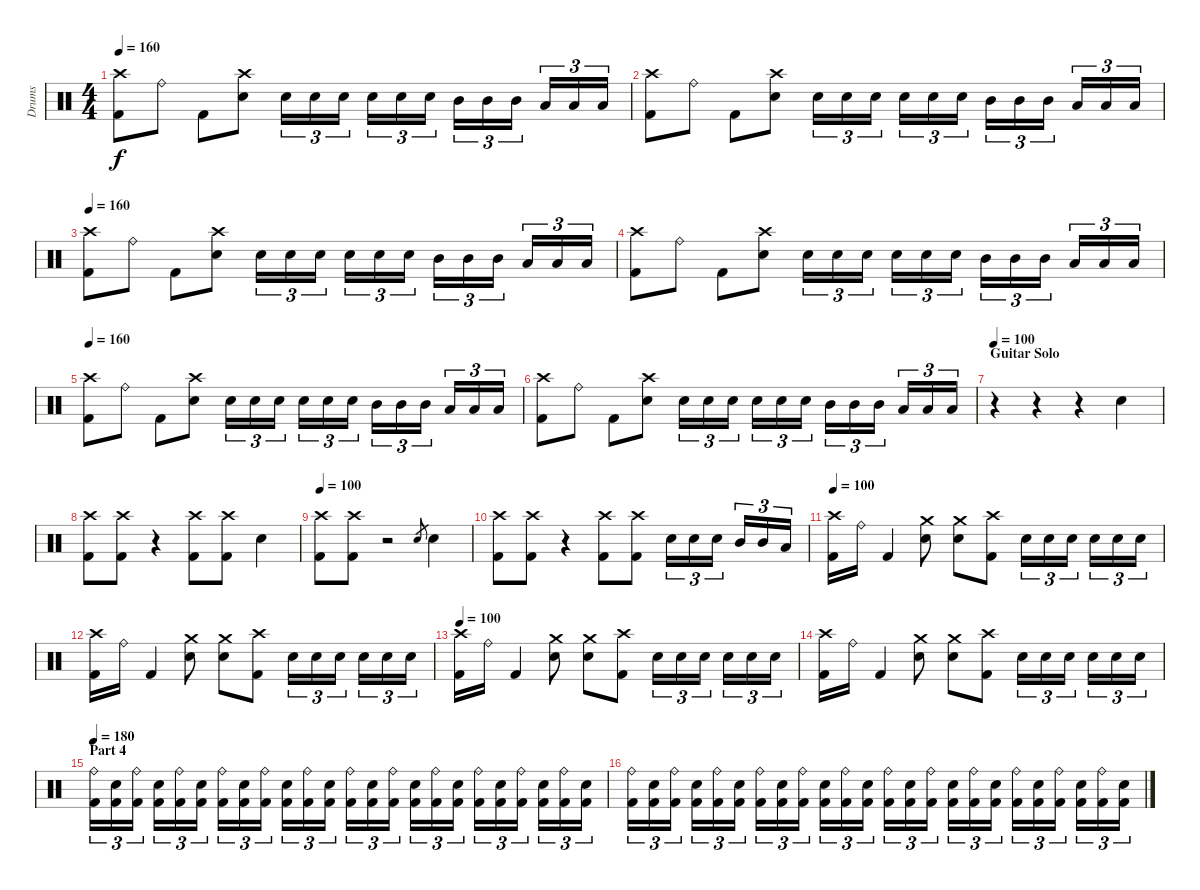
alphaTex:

\track ("Drums" "Drums") {instrument percussion}
\staff {score}
\articulation defaults
\ts (4 4)
\tempo 160
\clef neutral
\ks c
("Crash high (hit)" "Kick (hit) 2").8{dy f} "Ride (bell)".8 "Kick (hit) 2".8 ("Crash high (hit)" "Electric Snare (hit)").8 "Electric Snare (hit)".16{tu (3 2)} "Electric Snare (hit)".16{tu (3 2)} "Electric Snare (hit)".16{tu (3 2)} "Electric Snare (hit)".16{tu (3 2)} "Electric Snare (hit)".16{tu (3 2)} "Electric Snare (hit)".16{tu (3 2)} "Mid Tom (hit)".16{tu (3 2)} "Mid Tom (hit)".16{tu (3 2)} "Mid Tom (hit)".16{tu (3 2)} "Low Tom (hit)".16{tu (3 2)} "Low Tom (hit)".16{tu (3 2)} "Low Tom (hit)".16{tu (3 2)} |
("Crash high (hit)" "Kick (hit) 2").8 "Ride (bell)".8 "Kick (hit) 2".8 ("Crash high (hit)" "Electric Snare (hit)").8 "Electric Snare (hit)".16{tu (3 2)} "Electric Snare (hit)".16{tu (3 2)} "Electric Snare (hit)".16{tu (3 2)} "Electric Snare (hit)".16{tu (3 2)} "Electric Snare (hit)".16{tu (3 2)} "Electric Snare (hit)".16{tu (3 2)} "Mid Tom (hit)".16{tu (3 2)} "Mid Tom (hit)".16{tu (3 2)} "Mid Tom (hit)".16{tu (3 2)} "Low Tom (hit)".16{tu (3 2)} "Low Tom (hit)".16{tu (3 2)} "Low Tom (hit)".16{tu (3 2)} |
\tempo 160
("Crash high (hit)" "Kick (hit) 2").8 "Ride (bell)".8 "Kick (hit) 2".8 ("Crash high (hit)" "Electric Snare (hit)").8 "Electric Snare (hit)".16{tu (3 2)} "Electric Snare (hit)".16{tu (3 2)} "Electric Snare (hit)".16{tu (3 2)} "Electric Snare (hit)".16{tu (3 2)} "Electric Snare (hit)".16{tu (3 2)} "Electric Snare (hit)".16{tu (3 2)} "Mid Tom (hit)".16{tu (3 2)} "Mid Tom (hit)".16{tu (3 2)} "Mid Tom (hit)".16{tu (3 2)} "Low Tom (hit)".16{tu (3 2)} "Low Tom (hit)".16{tu (3 2)} "Low Tom (hit)".16{tu (3 2)} |
("Crash high (hit)" "Kick (hit) 2").8 "Ride (bell)".8 "Kick (hit) 2".8 ("Crash high (hit)" "Electric Snare (hit)").8 "Electric Snare (hit)".16{tu (3 2)} "Electric Snare (hit)".16{tu (3 2)} "Electric Snare (hit)".16{tu (3 2)} "Electric Snare (hit)".16{tu (3 2)} "Electric Snare (hit)".16{tu (3 2)} "Electric Snare (hit)".16{tu (3 2)} "Mid Tom (hit)".16{tu (3 2)} "Mid Tom (hit)".16{tu (3 2)} "Mid Tom (hit)".16{tu (3 2)} "Low Tom (hit)".16{tu (3 2)} "Low Tom (hit)".16{tu (3 2)} "Low Tom (hit)".16{tu (3 2)} |
\tempo 160
("Crash high (hit)" "Kick (hit) 2").8 "Ride (bell)".8 "Kick (hit) 2".8 ("Crash high (hit)" "Electric Snare (hit)").8 "Electric Snare (hit)".16{tu (3 2)} "Electric Snare (hit)".16{tu (3 2)} "Electric Snare (hit)".16{tu (3 2)} "Electric Snare (hit)".16{tu (3 2)} "Electric Snare (hit)".16{tu (3 2)} "Electric Snare (hit)".16{tu (3 2)} "Mid Tom (hit)".16{tu (3 2)} "Mid Tom (hit)".16{tu (3 2)} "Mid Tom (hit)".16{tu (3 2)} "Low Tom (hit)".16{tu (3 2)} "Low Tom (hit)".16{tu (3 2)} "Low Tom (hit)".16{tu (3 2)} |
("Crash high (hit)" "Kick (hit) 2").8 "Ride (bell)".8 "Kick (hit) 2".8 ("Crash high (hit)" "Electric Snare (hit)").8 "Electric Snare (hit)".16{tu (3 2)} "Electric Snare (hit)".16{tu (3 2)} "Electric Snare (hit)".16{tu (3 2)} "Electric Snare (hit)".16{tu (3 2)} "Electric Snare (hit)".16{tu (3 2)} "Electric Snare (hit)".16{tu (3 2)} "Mid Tom (hit)".16{tu (3 2)} "Mid Tom (hit)".16{tu (3 2)} "Mid Tom (hit)".16{tu (3 2)} "Low Tom (hit)".16{tu (3 2)} "Low Tom (hit)".16{tu (3 2)} "Low Tom (hit)".16{tu (3 2)} |
\section ("" "Guitar Solo")
\tempo 100
r.4 r.4 r.4 "Electric Snare (hit)".4 |
("Crash high (hit)" "Kick (hit) 2").8 ("Crash high (hit)" "Kick (hit) 2").8 r.4 ("Crash high (hit)" "Kick (hit) 2").8 ("Crash high (hit)" "Kick (hit) 2").8 "Electric Snare (hit)".4 |
\tempo 100
("Crash high (hit)" "Kick (hit) 2").8 ("Crash high (hit)" "Kick (hit) 2").8 r.2 "Electric Snare (hit)".8{gr} "Electric Snare (hit)".4 |
("Crash high (hit)" "Kick (hit) 2").8 ("Crash high (hit)" "Kick (hit) 2").8 r.4 ("Crash high (hit)" "Kick (hit) 2").8 ("Crash high (hit)" "Kick (hit) 2").8 "Electric Snare (hit)".16{tu (3 2)} "Electric Snare (hit)".16{tu (3 2)} "Electric Snare (hit)".16{tu (3 2)} "Mid Tom (hit)".16{tu (3 2)} "Mid Tom (hit)".16{tu (3 2)} "Low Tom (hit)".16{tu (3 2)} |
\tempo 100
("Crash high (hit)" "Kick (hit) 2").16 "Ride (bell)".16 "Kick (hit) 2".4 ("Crash medium (hit)" "Electric Snare (hit)").8 ("Crash medium (hit)" "Electric Snare (hit)").8 ("Crash high (hit)" "Kick (hit) 2").8 "Electric Snare (hit)".16{tu (3 2)} "Electric Snare (hit)".16{tu (3 2)} "Electric Snare (hit)".16{tu (3 2)} "Electric Snare (hit)".16{tu (3 2)} "Electric Snare (hit)".16{tu (3 2)} "Electric Snare (hit)".16{tu (3 2)} |
("Crash high (hit)" "Kick (hit) 2").16 "Ride (bell)".16 "Kick (hit) 2".4 ("Crash medium (hit)" "Electric Snare (hit)").8 ("Crash medium (hit)" "Electric Snare (hit)").8 ("Crash high (hit)" "Kick (hit) 2").8 "Electric Snare (hit)".16{tu (3 2)} "Electric Snare (hit)".16{tu (3 2)} "Electric Snare (hit)".16{tu (3 2)} "Electric Snare (hit)".16{tu (3 2)} "Electric Snare (hit)".16{tu (3 2)} "Electric Snare (hit)".16{tu (3 2)} |
\tempo 100
("Crash high (hit)" "Kick (hit) 2").16 "Ride (bell)".16 "Kick (hit) 2".4 ("Crash medium (hit)" "Electric Snare (hit)").8 ("Crash medium (hit)" "Electric Snare (hit)").8 ("Crash high (hit)" "Kick (hit) 2").8 "Electric Snare (hit)".16{tu (3 2)} "Electric Snare (hit)".16{tu (3 2)} "Electric Snare (hit)".16{tu (3 2)} "Electric Snare (hit)".16{tu (3 2)} "Electric Snare (hit)".16{tu (3 2)} "Electric Snare (hit)".16{tu (3 2)} |
("Crash high (hit)" "Kick (hit) 2").16 "Ride (bell)".16 "Kick (hit) 2".4 ("Crash medium (hit)" "Electric Snare (hit)").8 ("Crash medium (hit)" "Electric Snare (hit)").8 ("Crash high (hit)" "Kick (hit) 2").8 "Electric Snare (hit)".16{tu (3 2)} "Electric Snare (hit)".16{tu (3 2)} "Electric Snare (hit)".16{tu (3 2)} "Electric Snare (hit)".16{tu (3 2)} "Electric Snare (hit)".16{tu (3 2)} "Electric Snare (hit)".16{tu (3 2)} |
\section ("" "Part 4")
\tempo 180
("Ride (bell)" "Kick (hit) 2").16{tu (3 2)} ("Electric Snare (hit)" "Kick (hit) 2").16{tu (3 2)} ("Ride (bell)" "Kick (hit) 2").16{tu (3 2)} ("Electric Snare (hit)" "Kick (hit) 2").16{tu (3 2)} ("Ride (bell)" "Kick (hit) 2").16{tu (3 2)} ("Electric Snare (hit)" "Kick (hit) 2").16{tu (3 2)} ("Ride (bell)" "Kick (hit) 2").16{tu (3 2)} ("Electric Snare (hit)" "Kick (hit) 2").16{tu (3 2)} ("Ride (bell)" "Kick (hit) 2").16{tu (3 2)} ("Electric Snare (hit)" "Kick (hit) 2").16{tu (3 2)} ("Ride (bell)" "Kick (hit) 2").16{tu (3 2)} ("Electric Snare (hit)" "Kick (hit) 2").16{tu (3 2)} ("Ride (bell)" "Kick (hit) 2").16{tu (3 2)} ("Electric Snare (hit)" "Kick (hit) 2").16{tu (3 2)} ("Ride (bell)" "Kick (hit) 2").16{tu (3 2)} ("Electric Snare (hit)" "Kick (hit) 2").16{tu (3 2)} ("Ride (bell)" "Kick (hit) 2").16{tu (3 2)} ("Electric Snare (hit)" "Kick (hit) 2").16{tu (3 2)} ("Ride (bell)" "Kick (hit) 2").16{tu (3 2)} ("Electric Snare (hit)" "Kick (hit) 2").16{tu (3 2)} ("Ride (bell)" "Kick (hit) 2").16{tu (3 2)} ("Electric Snare (hit)" "Kick (hit) 2").16{tu (3 2)} ("Ride (bell)" "Kick (hit) 2").16{tu (3 2)} ("Electric Snare (hit)" "Kick (hit) 2").16{tu (3 2)} |
("Ride (bell)" "Kick (hit) 2").16{tu (3 2)} ("Electric Snare (hit)" "Kick (hit) 2").16{tu (3 2)} ("Ride (bell)" "Kick (hit) 2").16{tu (3 2)} ("Electric Snare (hit)" "Kick (hit) 2").16{tu (3 2)} ("Ride (bell)" "Kick (hit) 2").16{tu (3 2)} ("Electric Snare (hit)" "Kick (hit) 2").16{tu (3 2)} ("Ride (bell)" "Kick (hit) 2").16{tu (3 2)} ("Electric Snare (hit)" "Kick (hit) 2").16{tu (3 2)} ("Ride (bell)" "Kick (hit) 2").16{tu (3 2)} ("Electric Snare (hit)" "Kick (hit) 2").16{tu (3 2)} ("Ride (bell)" "Kick (hit) 2").16{tu (3 2)} ("Electric Snare (hit)" "Kick (hit) 2").16{tu (3 2)} ("Ride (bell)" "Kick (hit) 2").16{tu (3 2)} ("Electric Snare (hit)" "Kick (hit) 2").16{tu (3 2)} ("Ride (bell)" "Kick (hit) 2").16{tu (3 2)} ("Electric Snare (hit)" "Kick (hit) 2").16{tu (3 2)} ("Ride (bell)" "Kick (hit) 2").16{tu (3 2)} ("Electric Snare (hit)" "Kick (hit) 2").16{tu (3 2)} ("Ride (bell)" "Kick (hit) 2").16{tu (3 2)} ("Electric Snare (hit)" "Kick (hit) 2").16{tu (3 2)} ("Ride (bell)" "Kick (hit) 2").16{tu (3 2)} ("Electric Snare (hit)" "Kick (hit) 2").16{tu (3 2)} ("Ride (bell)" "Kick (hit) 2").16{tu (3 2)} ("Electric Snare (hit)" "Kick (hit) 2").16{tu (3 2)}
